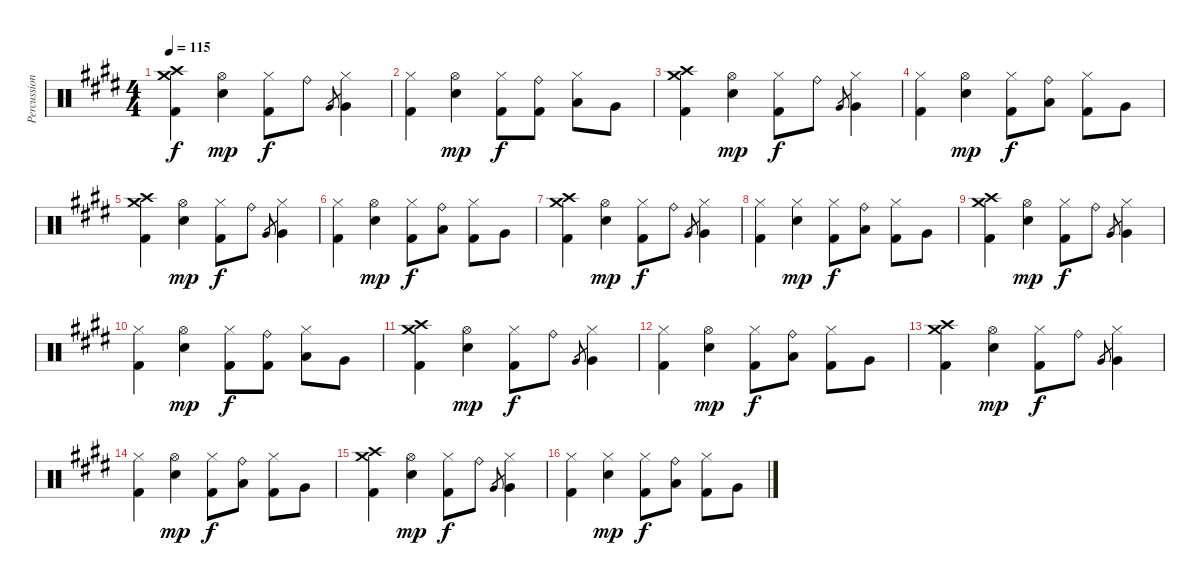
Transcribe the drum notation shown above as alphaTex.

\track ("Percussion" "Percussion") {instrument percussion}
\staff {score}
\articulation defaults
\ts (4 4)
\tempo 115
\clef neutral
\ks c#minor
("Crash high (hit)" "Crash medium (hit)" "Kick (hit) 2").4{dy f} ("Hi-Hat (open)" "Electric Snare (hit)").4{dy mp} ("Hi-Hat (closed)" "Kick (hit) 2").8{dy f} "Ride (bell)".8 "Very Low Tom (hit)".8{gr} ("Hi-Hat (closed)" "Very Low Tom (hit)").4 |
("Hi-Hat (closed)" "Kick (hit) 2").4 ("Hi-Hat (open)" "Electric Snare (hit)").4{dy mp} ("Hi-Hat (closed)" "Kick (hit) 2").8{dy f} ("Ride (bell)" "Kick (hit) 2").8 ("Hi-Hat (closed)" "Low Tom (hit)").8 "Very Low Tom (hit)".8 |
("Crash high (hit)" "Crash medium (hit)" "Kick (hit) 2").4 ("Hi-Hat (open)" "Electric Snare (hit)").4{dy mp} ("Hi-Hat (closed)" "Kick (hit) 2").8{dy f} "Ride (bell)".8 "Very Low Tom (hit)".8{gr} ("Hi-Hat (closed)" "Very Low Tom (hit)").4 |
("Hi-Hat (closed)" "Kick (hit) 2").4 ("Hi-Hat (open)" "Electric Snare (hit)").4{dy mp} ("Hi-Hat (closed)" "Kick (hit) 2").8{dy f} ("Ride (bell)" "Low Tom (hit)").8 ("Hi-Hat (closed)" "Kick (hit) 2").8 "Very Low Tom (hit)".8 |
("Crash high (hit)" "Crash medium (hit)" "Kick (hit) 2").4 ("Hi-Hat (open)" "Electric Snare (hit)").4{dy mp} ("Hi-Hat (closed)" "Kick (hit) 2").8{dy f} "Ride (bell)".8 "Very Low Tom (hit)".8{gr} ("Hi-Hat (closed)" "Very Low Tom (hit)").4 |
("Hi-Hat (closed)" "Kick (hit) 2").4 ("Hi-Hat (open)" "Electric Snare (hit)").4{dy mp} ("Hi-Hat (closed)" "Kick (hit) 2").8{dy f} ("Ride (bell)" "Low Tom (hit)").8 ("Hi-Hat (closed)" "Kick (hit) 2").8 "Very Low Tom (hit)".8 |
("Crash high (hit)" "Crash medium (hit)" "Kick (hit) 2").4 ("Hi-Hat (open)" "Electric Snare (hit)").4{dy mp} ("Hi-Hat (closed)" "Kick (hit) 2").8{dy f} "Ride (bell)".8 "Very Low Tom (hit)".8{gr} ("Hi-Hat (closed)" "Very Low Tom (hit)").4 |
("Hi-Hat (closed)" "Kick (hit) 2").4 ("Hi-Hat (closed)" "Electric Snare (hit)").4{dy mp} ("Hi-Hat (closed)" "Kick (hit) 2").8{dy f} ("Ride (bell)" "Low Tom (hit)").8 ("Hi-Hat (closed)" "Kick (hit) 2").8 "Very Low Tom (hit)".8 |
("Crash high (hit)" "Crash medium (hit)" "Kick (hit) 2").4 ("Hi-Hat (open)" "Electric Snare (hit)").4{dy mp} ("Hi-Hat (closed)" "Kick (hit) 2").8{dy f} "Ride (bell)".8 "Very Low Tom (hit)".8{gr} ("Hi-Hat (closed)" "Very Low Tom (hit)").4 |
("Hi-Hat (closed)" "Kick (hit) 2").4 ("Hi-Hat (open)" "Electric Snare (hit)").4{dy mp} ("Hi-Hat (closed)" "Kick (hit) 2").8{dy f} ("Ride (bell)" "Kick (hit) 2").8 ("Hi-Hat (closed)" "Low Tom (hit)").8 "Very Low Tom (hit)".8 |
("Crash high (hit)" "Crash medium (hit)" "Kick (hit) 2").4 ("Hi-Hat (open)" "Electric Snare (hit)").4{dy mp} ("Hi-Hat (closed)" "Kick (hit) 2").8{dy f} "Ride (bell)".8 "Very Low Tom (hit)".8{gr} ("Hi-Hat (closed)" "Very Low Tom (hit)").4 |
("Hi-Hat (closed)" "Kick (hit) 2").4 ("Hi-Hat (open)" "Electric Snare (hit)").4{dy mp} ("Hi-Hat (closed)" "Kick (hit) 2").8{dy f} ("Ride (bell)" "Low Tom (hit)").8 ("Hi-Hat (closed)" "Kick (hit) 2").8 "Very Low Tom (hit)".8 |
("Crash high (hit)" "Crash medium (hit)" "Kick (hit) 2").4 ("Hi-Hat (open)" "Electric Snare (hit)").4{dy mp} ("Hi-Hat (closed)" "Kick (hit) 2").8{dy f} "Ride (bell)".8 "Very Low Tom (hit)".8{gr} ("Hi-Hat (closed)" "Very Low Tom (hit)").4 |
("Hi-Hat (closed)" "Kick (hit) 2").4 ("Hi-Hat (open)" "Electric Snare (hit)").4{dy mp} ("Hi-Hat (closed)" "Kick (hit) 2").8{dy f} ("Ride (bell)" "Low Tom (hit)").8 ("Hi-Hat (closed)" "Kick (hit) 2").8 "Very Low Tom (hit)".8 |
("Crash high (hit)" "Crash medium (hit)" "Kick (hit) 2").4 ("Hi-Hat (open)" "Electric Snare (hit)").4{dy mp} ("Hi-Hat (closed)" "Kick (hit) 2").8{dy f} "Ride (bell)".8 "Very Low Tom (hit)".8{gr} ("Hi-Hat (closed)" "Very Low Tom (hit)").4 |
("Hi-Hat (closed)" "Kick (hit) 2").4 ("Hi-Hat (closed)" "Electric Snare (hit)").4{dy mp} ("Hi-Hat (closed)" "Kick (hit) 2").8{dy f} ("Ride (bell)" "Low Tom (hit)").8 ("Hi-Hat (closed)" "Kick (hit) 2").8 "Very Low Tom (hit)".8
